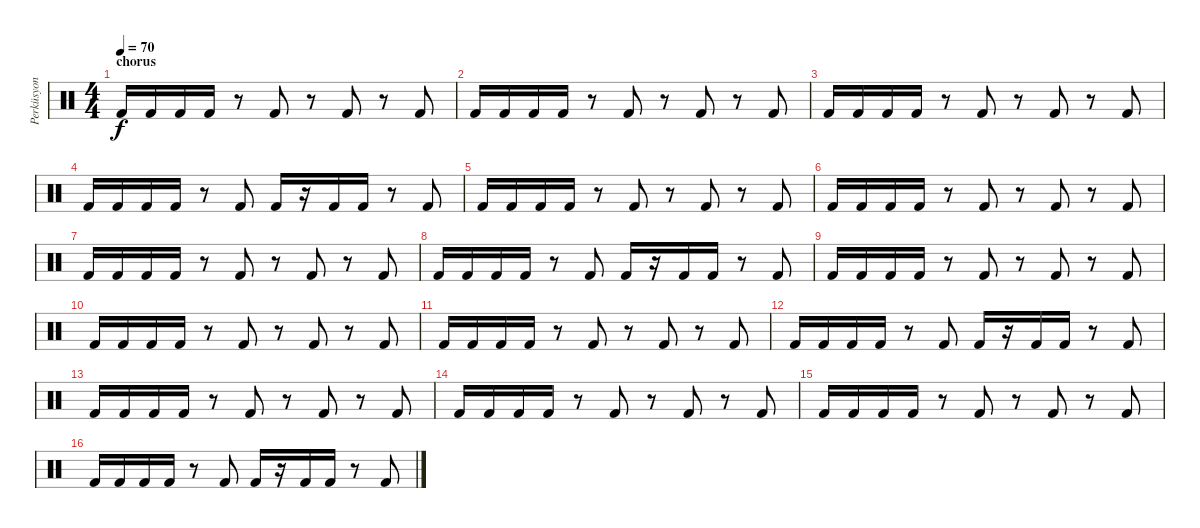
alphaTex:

\track ("Perküsyon" "Perküsyon") {instrument percussion}
\staff {score}
\articulation defaults
\ts (4 4)
\section ("" "chorus")
\tempo 70
\clef neutral
\ks c "Kick (hit) 2".16{dy f} "Kick (hit) 2".16 "Kick (hit) 2".16 "Kick (hit) 2".16
r.8 "Kick (hit) 2".8 r.8 "Kick (hit) 2".8 r.8 "Kick (hit) 2".8 |
"Kick (hit) 2".16 "Kick (hit) 2".16 "Kick (hit) 2".16 "Kick (hit) 2".16 r.8 "Kick (hit) 2".8 r.8 "Kick (hit) 2".8 r.8 "Kick (hit) 2".8 |
"Kick (hit) 2".16 "Kick (hit) 2".16 "Kick (hit) 2".16 "Kick (hit) 2".16 r.8 "Kick (hit) 2".8 r.8 "Kick (hit) 2".8 r.8 "Kick (hit) 2".8 |
"Kick (hit) 2".16 "Kick (hit) 2".16 "Kick (hit) 2".16 "Kick (hit) 2".16 r.8 "Kick (hit) 2".8 "Kick (hit) 2".16 r.16 "Kick (hit) 2".16 "Kick (hit) 2".16 r.8 "Kick (hit) 2".8 |
"Kick (hit) 2".16 "Kick (hit) 2".16 "Kick (hit) 2".16 "Kick (hit) 2".16 r.8 "Kick (hit) 2".8 r.8 "Kick (hit) 2".8 r.8 "Kick (hit) 2".8 |
"Kick (hit) 2".16 "Kick (hit) 2".16 "Kick (hit) 2".16 "Kick (hit) 2".16 r.8 "Kick (hit) 2".8 r.8 "Kick (hit) 2".8 r.8 "Kick (hit) 2".8 |
"Kick (hit) 2".16 "Kick (hit) 2".16 "Kick (hit) 2".16 "Kick (hit) 2".16 r.8 "Kick (hit) 2".8 r.8 "Kick (hit) 2".8 r.8 "Kick (hit) 2".8 |
"Kick (hit) 2".16 "Kick (hit) 2".16 "Kick (hit) 2".16 "Kick (hit) 2".16 r.8 "Kick (hit) 2".8 "Kick (hit) 2".16 r.16 "Kick (hit) 2".16 "Kick (hit) 2".16 r.8 "Kick (hit) 2".8 |
"Kick (hit) 2".16 "Kick (hit) 2".16 "Kick (hit) 2".16 "Kick (hit) 2".16 r.8 "Kick (hit) 2".8 r.8 "Kick (hit) 2".8 r.8 "Kick (hit) 2".8 |
"Kick (hit) 2".16 "Kick (hit) 2".16 "Kick (hit) 2".16 "Kick (hit) 2".16 r.8 "Kick (hit) 2".8 r.8 "Kick (hit) 2".8 r.8 "Kick (hit) 2".8 |
"Kick (hit) 2".16 "Kick (hit) 2".16 "Kick (hit) 2".16 "Kick (hit) 2".16 r.8 "Kick (hit) 2".8 r.8 "Kick (hit) 2".8 r.8 "Kick (hit) 2".8 |
"Kick (hit) 2".16 "Kick (hit) 2".16 "Kick (hit) 2".16 "Kick (hit) 2".16 r.8 "Kick (hit) 2".8 "Kick (hit) 2".16 r.16 "Kick (hit) 2".16 "Kick (hit) 2".16 r.8 "Kick (hit) 2".8 |
"Kick (hit) 2".16 "Kick (hit) 2".16 "Kick (hit) 2".16 "Kick (hit) 2".16 r.8 "Kick (hit) 2".8 r.8 "Kick (hit) 2".8 r.8 "Kick (hit) 2".8 |
"Kick (hit) 2".16 "Kick (hit) 2".16 "Kick (hit) 2".16 "Kick (hit) 2".16 r.8 "Kick (hit) 2".8 r.8 "Kick (hit) 2".8 r.8 "Kick (hit) 2".8 |
"Kick (hit) 2".16 "Kick (hit) 2".16 "Kick (hit) 2".16 "Kick (hit) 2".16 r.8 "Kick (hit) 2".8 r.8 "Kick (hit) 2".8 r.8 "Kick (hit) 2".8 |
"Kick (hit) 2".16 "Kick (hit) 2".16 "Kick (hit) 2".16 "Kick (hit) 2".16 r.8 "Kick (hit) 2".8 "Kick (hit) 2".16 r.16 "Kick (hit) 2".16 "Kick (hit) 2".16 r.8 "Kick (hit) 2".8
